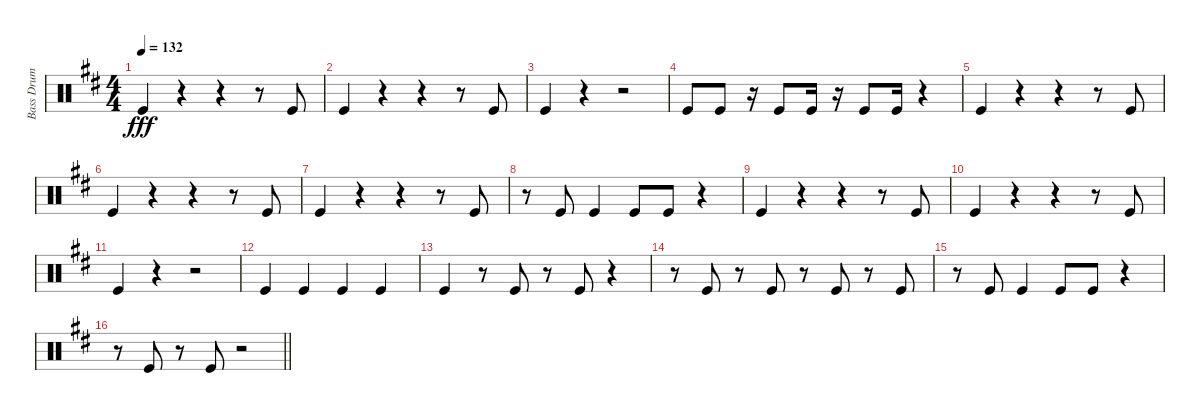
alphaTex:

\track ("Bass Drum" "Bass Drum") {instrument percussion}
\staff {score}
\articulation defaults
\ts (4 4)
\tempo 132
\clef neutral
\ks d "Kick (hit)".4{dy fff}
r.4 r.4 r.8 "Kick (hit)".8 |
"Kick (hit)".4 r.4 r.4 r.8 "Kick (hit)".8 |
"Kick (hit)".4 r.4 r.2 |
"Kick (hit)".8 "Kick (hit)".8 r.16 "Kick (hit)".8 "Kick (hit)".16 r.16 "Kick (hit)".8 "Kick (hit)".16 r.4 |
"Kick (hit)".4 r.4 r.4 r.8 "Kick (hit)".8 |
"Kick (hit)".4 r.4 r.4 r.8 "Kick (hit)".8 |
"Kick (hit)".4 r.4 r.4 r.8 "Kick (hit)".8 |
r.8 "Kick (hit)".8 "Kick (hit)".4 "Kick (hit)".8 "Kick (hit)".8 r.4 |
"Kick (hit)".4 r.4 r.4 r.8 "Kick (hit)".8 |
"Kick (hit)".4 r.4 r.4 r.8 "Kick (hit)".8 |
"Kick (hit)".4 r.4 r.2 |
"Kick (hit)".4 "Kick (hit)".4 "Kick (hit)".4 "Kick (hit)".4 |
"Kick (hit)".4 r.8 "Kick (hit)".8 r.8 "Kick (hit)".8 r.4 |
r.8 "Kick (hit)".8 r.8 "Kick (hit)".8 r.8 "Kick (hit)".8 r.8 "Kick (hit)".8 |
r.8 "Kick (hit)".8 "Kick (hit)".4 "Kick (hit)".8 "Kick (hit)".8 r.4 |
\barLineRight lightlight
r.8 "Kick (hit)".8 r.8 "Kick (hit)".8 r.2
